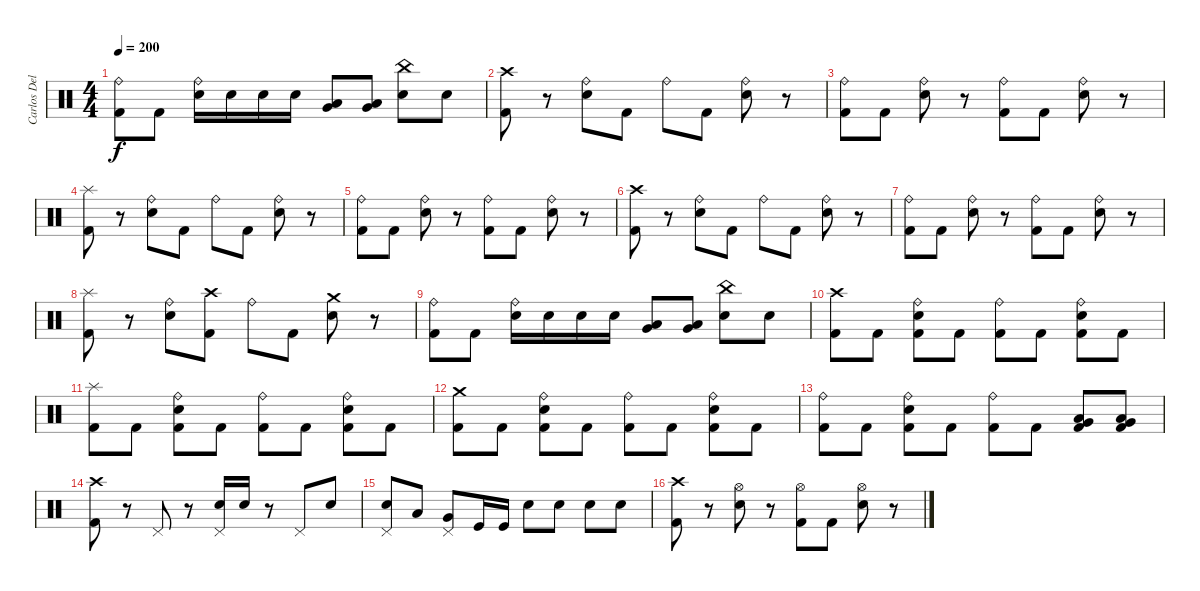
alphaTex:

\track ("Carlos Delgado" "Carlos Del") {instrument percussion}
\staff {score}
\articulation defaults
\ts (4 4)
\tempo 200
\clef neutral
\ks c
("Ride (bell)" "Kick (hit) 2").8{dy f} "Kick (hit) 2".8 ("Ride (bell)" "Electric Snare (hit)").16 "Electric Snare (hit)".16 "Electric Snare (hit)".16 "Electric Snare (hit)".16 ("Very Low Tom (hit)" "Low Floor Tom (hit)").8 ("Very Low Tom (hit)" "Low Floor Tom (hit)").8 ("China (hit)" "Electric Snare (hit)").8 "Electric Snare (hit)".8 |
("Crash high (hit)" "Kick (hit) 2").8 r.8 ("Ride (bell)" "Electric Snare (hit)").8 "Kick (hit) 2".8 "Ride (bell)".8 "Kick (hit) 2".8 ("Electric Snare (hit)" "Ride (bell)").8 r.8 |
("Ride (bell)" "Kick (hit) 2").8 "Kick (hit) 2".8 ("Ride (bell)" "Electric Snare (hit)").8 r.8 ("Ride (bell)" "Kick (hit) 2").8 "Kick (hit) 2".8 ("Ride (bell)" "Electric Snare (hit)").8 r.8 |
("Splash (hit)" "Kick (hit) 2").8 r.8 ("Ride (bell)" "Electric Snare (hit)").8 "Kick (hit) 2".8 "Ride (bell)".8 "Kick (hit) 2".8 ("Electric Snare (hit)" "Ride (bell)").8 r.8 |
("Ride (bell)" "Kick (hit) 2").8 "Kick (hit) 2".8 ("Ride (bell)" "Electric Snare (hit)").8 r.8 ("Ride (bell)" "Kick (hit) 2").8 "Kick (hit) 2".8 ("Ride (bell)" "Electric Snare (hit)").8 r.8 |
("Crash high (hit)" "Kick (hit) 2").8 r.8 ("Ride (bell)" "Electric Snare (hit)").8 "Kick (hit) 2".8 "Ride (bell)".8 "Kick (hit) 2".8 ("Electric Snare (hit)" "Ride (bell)").8 r.8 |
("Ride (bell)" "Kick (hit) 2").8 "Kick (hit) 2".8 ("Ride (bell)" "Electric Snare (hit)").8 r.8 ("Ride (bell)" "Kick (hit) 2").8 "Kick (hit) 2".8 ("Ride (bell)" "Electric Snare (hit)").8 r.8 |
("Splash (hit)" "Kick (hit) 2").8 r.8 ("Ride (bell)" "Electric Snare (hit)").8 ("Crash high (hit)" "Kick (hit) 2").8 "Ride (bell)".8 "Kick (hit) 2".8 ("Electric Snare (hit)" "Crash medium (hit)").8 r.8 |
("Ride (bell)" "Kick (hit) 2").8 "Kick (hit) 2".8 ("Ride (bell)" "Electric Snare (hit)").16 "Electric Snare (hit)".16 "Electric Snare (hit)".16 "Electric Snare (hit)".16 ("Very Low Tom (hit)" "Low Floor Tom (hit)").8 ("Very Low Tom (hit)" "Low Floor Tom (hit)").8 ("China (hit)" "Electric Snare (hit)").8 "Electric Snare (hit)".8 |
("Crash high (hit)" "Kick (hit) 2").8 "Kick (hit) 2".8 ("Kick (hit) 2" "Ride (bell)" "Electric Snare (hit)").8 "Kick (hit) 2".8 ("Kick (hit) 2" "Ride (bell)").8 "Kick (hit) 2".8 ("Kick (hit) 2" "Electric Snare (hit)" "Ride (bell)").8 "Kick (hit) 2".8 |
("Splash (hit)" "Kick (hit) 2").8 "Kick (hit) 2".8 ("Kick (hit) 2" "Ride (bell)" "Electric Snare (hit)").8 "Kick (hit) 2".8 ("Ride (bell)" "Kick (hit) 2").8 "Kick (hit) 2".8 ("Kick (hit) 2" "Ride (bell)" "Electric Snare (hit)").8 "Kick (hit) 2".8 |
("Crash medium (hit)" "Kick (hit) 2").8 "Kick (hit) 2".8 ("Kick (hit) 2" "Ride (bell)" "Electric Snare (hit)").8 "Kick (hit) 2".8 ("Kick (hit) 2" "Ride (bell)").8 "Kick (hit) 2".8 ("Kick (hit) 2" "Electric Snare (hit)" "Ride (bell)").8 "Kick (hit) 2".8 |
("Ride (bell)" "Kick (hit) 2").8 "Kick (hit) 2".8 ("Kick (hit) 2" "Ride (bell)" "Electric Snare (hit)").8 "Kick (hit) 2".8 ("Ride (bell)" "Kick (hit) 2").8 "Kick (hit) 2".8 ("Very Low Tom (hit)" "Kick (hit) 2" "Low Tom (hit)").8 ("Very Low Tom (hit)" "Kick (hit) 2" "Low Floor Tom (hit)").8 |
("Crash high (hit)" "Kick (hit) 2").8 r.8 "Pedal Hi-Hat (hit)".8 r.8 ("Pedal Hi-Hat (hit)" "Electric Snare (hit)").16 "Electric Snare (hit)".16 r.8 "Pedal Hi-Hat (hit)".8 "Electric Snare (hit)".8 |
("Pedal Hi-Hat (hit)" "Electric Snare (hit)").8 "Low Tom (hit)".8 ("Pedal Hi-Hat (hit)" "Very Low Tom (hit)").8 "Kick (hit)".16 "Kick (hit)".16 "Electric Snare (hit)".8 "Electric Snare (hit)".8 "Electric Snare (hit)".8 "Electric Snare (hit)".8 |
("Crash high (hit)" "Kick (hit) 2").8 r.8 ("Electric Snare (hit)" "Hi-Hat (open)").8 r.8 ("Kick (hit) 2" "Hi-Hat (open)").8 "Kick (hit) 2".8 ("Electric Snare (hit)" "Hi-Hat (open)").8 r.8
